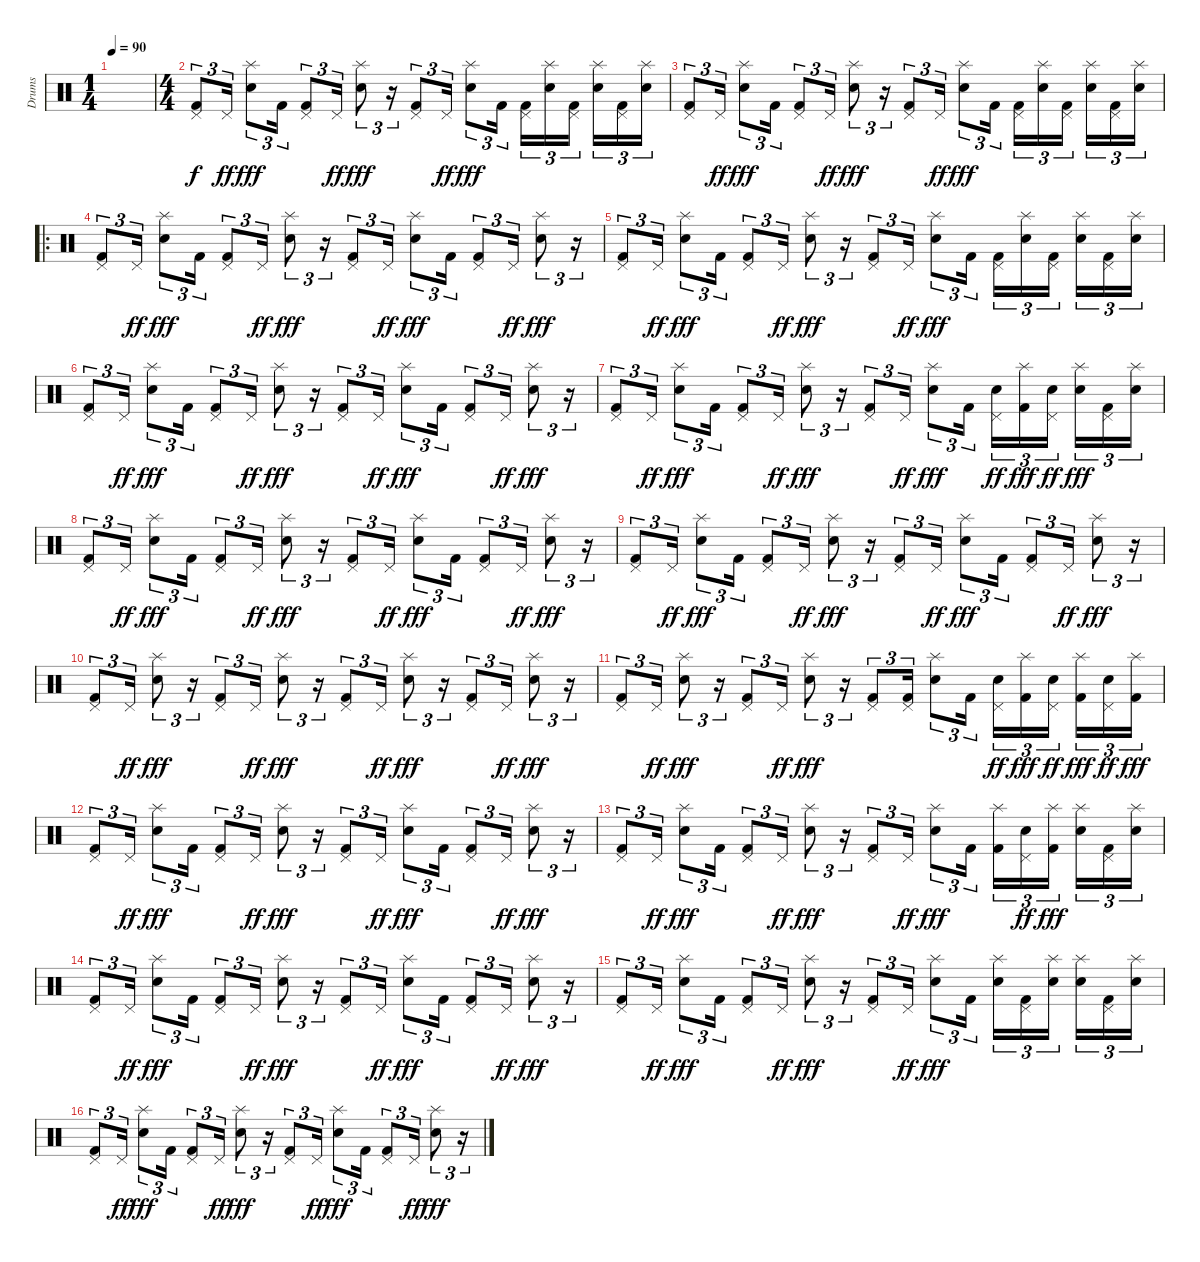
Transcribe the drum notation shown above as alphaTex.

\track ("Drums" "Drums") {instrument percussion}
\staff {score}
\articulation defaults
\ts (1 4)
\tempo 90
\clef neutral
\ks c
|
\ts (4 4)
("Pedal Hi-Hat (hit)" "Kick (hit) 2").8{tu (3 2)} "Pedal Hi-Hat (hit)".16{tu (3 2) dy ff} ("Splash (hit)" "Snare (hit) 2").8{tu (3 2) dy fff} "Kick (hit) 2".16{tu (3 2)} ("Pedal Hi-Hat (hit)" "Kick (hit) 2").8{tu (3 2)} "Pedal Hi-Hat (hit)".16{tu (3 2) dy ff} ("Splash (hit)" "Snare (hit) 2").8{tu (3 2) dy fff} r.16{tu (3 2)} ("Pedal Hi-Hat (hit)" "Kick (hit) 2").8{tu (3 2)} "Pedal Hi-Hat (hit)".16{tu (3 2) dy ff} ("Splash (hit)" "Snare (hit) 2").8{tu (3 2) dy fff} "Kick (hit) 2".16{tu (3 2)} ("Pedal Hi-Hat (hit)" "Kick (hit) 2").16{tu (3 2)} ("Splash (hit)" "Snare (hit) 2").16{tu (3 2)} ("Pedal Hi-Hat (hit)" "Kick (hit) 2").16{tu (3 2)} ("Splash (hit)" "Snare (hit) 2").16{tu (3 2)} ("Pedal Hi-Hat (hit)" "Kick (hit) 2").16{tu (3 2)} ("Splash (hit)" "Snare (hit) 2").16{tu (3 2)} |
("Pedal Hi-Hat (hit)" "Kick (hit) 2").8{tu (3 2)} "Pedal Hi-Hat (hit)".16{tu (3 2) dy ff} ("Splash (hit)" "Snare (hit) 2").8{tu (3 2) dy fff} "Kick (hit) 2".16{tu (3 2)} ("Pedal Hi-Hat (hit)" "Kick (hit) 2").8{tu (3 2)} "Pedal Hi-Hat (hit)".16{tu (3 2) dy ff} ("Splash (hit)" "Snare (hit) 2").8{tu (3 2) dy fff} r.16{tu (3 2)} ("Pedal Hi-Hat (hit)" "Kick (hit) 2").8{tu (3 2)} "Pedal Hi-Hat (hit)".16{tu (3 2) dy ff} ("Splash (hit)" "Snare (hit) 2").8{tu (3 2) dy fff} "Kick (hit) 2".16{tu (3 2)} ("Pedal Hi-Hat (hit)" "Kick (hit) 2").16{tu (3 2)} ("Splash (hit)" "Snare (hit) 2").16{tu (3 2)} ("Pedal Hi-Hat (hit)" "Kick (hit) 2").16{tu (3 2)} ("Splash (hit)" "Snare (hit) 2").16{tu (3 2)} ("Pedal Hi-Hat (hit)" "Kick (hit) 2").16{tu (3 2)} ("Splash (hit)" "Snare (hit) 2").16{tu (3 2)} |
\ro
("Pedal Hi-Hat (hit)" "Kick (hit) 2").8{tu (3 2)} "Pedal Hi-Hat (hit)".16{tu (3 2) dy ff} ("Splash (hit)" "Snare (hit) 2").8{tu (3 2) dy fff} "Kick (hit) 2".16{tu (3 2)} ("Pedal Hi-Hat (hit)" "Kick (hit) 2").8{tu (3 2)} "Pedal Hi-Hat (hit)".16{tu (3 2) dy ff} ("Splash (hit)" "Snare (hit) 2").8{tu (3 2) dy fff} r.16{tu (3 2)} ("Pedal Hi-Hat (hit)" "Kick (hit) 2").8{tu (3 2)} "Pedal Hi-Hat (hit)".16{tu (3 2) dy ff} ("Splash (hit)" "Snare (hit) 2").8{tu (3 2) dy fff} "Kick (hit) 2".16{tu (3 2)} ("Pedal Hi-Hat (hit)" "Kick (hit) 2").8{tu (3 2)} "Pedal Hi-Hat (hit)".16{tu (3 2) dy ff} ("Splash (hit)" "Snare (hit) 2").8{tu (3 2) dy fff} r.16{tu (3 2)} |
("Pedal Hi-Hat (hit)" "Kick (hit) 2").8{tu (3 2)} "Pedal Hi-Hat (hit)".16{tu (3 2) dy ff} ("Splash (hit)" "Snare (hit) 2").8{tu (3 2) dy fff} "Kick (hit) 2".16{tu (3 2)} ("Pedal Hi-Hat (hit)" "Kick (hit) 2").8{tu (3 2)} "Pedal Hi-Hat (hit)".16{tu (3 2) dy ff} ("Splash (hit)" "Snare (hit) 2").8{tu (3 2) dy fff} r.16{tu (3 2)} ("Pedal Hi-Hat (hit)" "Kick (hit) 2").8{tu (3 2)} "Pedal Hi-Hat (hit)".16{tu (3 2) dy ff} ("Splash (hit)" "Snare (hit) 2").8{tu (3 2) dy fff} "Kick (hit) 2".16{tu (3 2)} ("Pedal Hi-Hat (hit)" "Kick (hit) 2").16{tu (3 2)} ("Splash (hit)" "Snare (hit) 2").16{tu (3 2)} ("Pedal Hi-Hat (hit)" "Kick (hit) 2").16{tu (3 2)} ("Splash (hit)" "Snare (hit) 2").16{tu (3 2)} ("Pedal Hi-Hat (hit)" "Kick (hit) 2").16{tu (3 2)} ("Splash (hit)" "Snare (hit) 2").16{tu (3 2)} |
("Pedal Hi-Hat (hit)" "Kick (hit) 2").8{tu (3 2)} "Pedal Hi-Hat (hit)".16{tu (3 2) dy ff} ("Splash (hit)" "Snare (hit) 2").8{tu (3 2) dy fff} "Kick (hit) 2".16{tu (3 2)} ("Pedal Hi-Hat (hit)" "Kick (hit) 2").8{tu (3 2)} "Pedal Hi-Hat (hit)".16{tu (3 2) dy ff} ("Splash (hit)" "Snare (hit) 2").8{tu (3 2) dy fff} r.16{tu (3 2)} ("Pedal Hi-Hat (hit)" "Kick (hit) 2").8{tu (3 2)} "Pedal Hi-Hat (hit)".16{tu (3 2) dy ff} ("Splash (hit)" "Snare (hit) 2").8{tu (3 2) dy fff} "Kick (hit) 2".16{tu (3 2)} ("Pedal Hi-Hat (hit)" "Kick (hit) 2").8{tu (3 2)} "Pedal Hi-Hat (hit)".16{tu (3 2) dy ff} ("Splash (hit)" "Snare (hit) 2").8{tu (3 2) dy fff} r.16{tu (3 2)} |
("Pedal Hi-Hat (hit)" "Kick (hit) 2").8{tu (3 2)} "Pedal Hi-Hat (hit)".16{tu (3 2) dy ff} ("Splash (hit)" "Snare (hit) 2").8{tu (3 2) dy fff} "Kick (hit) 2".16{tu (3 2)} ("Pedal Hi-Hat (hit)" "Kick (hit) 2").8{tu (3 2)} "Pedal Hi-Hat (hit)".16{tu (3 2) dy ff} ("Splash (hit)" "Snare (hit) 2").8{tu (3 2) dy fff} r.16{tu (3 2)} ("Pedal Hi-Hat (hit)" "Kick (hit) 2").8{tu (3 2)} "Pedal Hi-Hat (hit)".16{tu (3 2) dy ff} ("Splash (hit)" "Snare (hit) 2").8{tu (3 2) dy fff} "Kick (hit) 2".16{tu (3 2)} ("Pedal Hi-Hat (hit)" "Snare (hit) 2").16{tu (3 2) dy ff} ("Splash (hit)" "Kick (hit) 2").16{tu (3 2) dy fff} ("Pedal Hi-Hat (hit)" "Snare (hit) 2").16{tu (3 2) dy ff} ("Splash (hit)" "Snare (hit) 2").16{tu (3 2) dy fff} ("Pedal Hi-Hat (hit)" "Kick (hit) 2").16{tu (3 2)} ("Splash (hit)" "Snare (hit) 2").16{tu (3 2)} |
("Pedal Hi-Hat (hit)" "Kick (hit) 2").8{tu (3 2)} "Pedal Hi-Hat (hit)".16{tu (3 2) dy ff} ("Splash (hit)" "Snare (hit) 2").8{tu (3 2) dy fff} "Kick (hit) 2".16{tu (3 2)} ("Pedal Hi-Hat (hit)" "Kick (hit) 2").8{tu (3 2)} "Pedal Hi-Hat (hit)".16{tu (3 2) dy ff} ("Splash (hit)" "Snare (hit) 2").8{tu (3 2) dy fff} r.16{tu (3 2)} ("Pedal Hi-Hat (hit)" "Kick (hit) 2").8{tu (3 2)} "Pedal Hi-Hat (hit)".16{tu (3 2) dy ff} ("Splash (hit)" "Snare (hit) 2").8{tu (3 2) dy fff} "Kick (hit) 2".16{tu (3 2)} ("Pedal Hi-Hat (hit)" "Kick (hit) 2").8{tu (3 2)} "Pedal Hi-Hat (hit)".16{tu (3 2) dy ff} ("Splash (hit)" "Snare (hit) 2").8{tu (3 2) dy fff} r.16{tu (3 2)} |
("Pedal Hi-Hat (hit)" "Kick (hit) 2").8{tu (3 2)} "Pedal Hi-Hat (hit)".16{tu (3 2) dy ff} ("Splash (hit)" "Snare (hit) 2").8{tu (3 2) dy fff} "Kick (hit) 2".16{tu (3 2)} ("Pedal Hi-Hat (hit)" "Kick (hit) 2").8{tu (3 2)} "Pedal Hi-Hat (hit)".16{tu (3 2) dy ff} ("Splash (hit)" "Snare (hit) 2").8{tu (3 2) dy fff} r.16{tu (3 2)} ("Pedal Hi-Hat (hit)" "Kick (hit) 2").8{tu (3 2)} "Pedal Hi-Hat (hit)".16{tu (3 2) dy ff} ("Splash (hit)" "Snare (hit) 2").8{tu (3 2) dy fff} "Kick (hit) 2".16{tu (3 2)} ("Pedal Hi-Hat (hit)" "Kick (hit) 2").8{tu (3 2)} "Pedal Hi-Hat (hit)".16{tu (3 2) dy ff} ("Splash (hit)" "Snare (hit) 2").8{tu (3 2) dy fff} r.16{tu (3 2)} |
("Pedal Hi-Hat (hit)" "Kick (hit) 2").8{tu (3 2)} "Pedal Hi-Hat (hit)".16{tu (3 2) dy ff} ("Splash (hit)" "Snare (hit) 2").8{tu (3 2) dy fff} r.16{tu (3 2)} ("Pedal Hi-Hat (hit)" "Kick (hit) 2").8{tu (3 2)} "Pedal Hi-Hat (hit)".16{tu (3 2) dy ff} ("Splash (hit)" "Snare (hit) 2").8{tu (3 2) dy fff} r.16{tu (3 2)} ("Pedal Hi-Hat (hit)" "Kick (hit) 2").8{tu (3 2)} "Pedal Hi-Hat (hit)".16{tu (3 2) dy ff} ("Splash (hit)" "Snare (hit) 2").8{tu (3 2) dy fff} r.16{tu (3 2)} ("Pedal Hi-Hat (hit)" "Kick (hit) 2").8{tu (3 2)} "Pedal Hi-Hat (hit)".16{tu (3 2) dy ff} ("Splash (hit)" "Snare (hit) 2").8{tu (3 2) dy fff} r.16{tu (3 2)} |
("Pedal Hi-Hat (hit)" "Kick (hit) 2").8{tu (3 2)} "Pedal Hi-Hat (hit)".16{tu (3 2) dy ff} ("Splash (hit)" "Snare (hit) 2").8{tu (3 2) dy fff} r.16{tu (3 2)} ("Pedal Hi-Hat (hit)" "Kick (hit) 2").8{tu (3 2)} "Pedal Hi-Hat (hit)".16{tu (3 2) dy ff} ("Splash (hit)" "Snare (hit) 2").8{tu (3 2) dy fff} r.16{tu (3 2)} ("Pedal Hi-Hat (hit)" "Kick (hit) 2").8{tu (3 2)} ("Pedal Hi-Hat (hit)" "Kick (hit) 2").16{tu (3 2)} ("Splash (hit)" "Snare (hit) 2").8{tu (3 2)} "Kick (hit) 2".16{tu (3 2)} ("Pedal Hi-Hat (hit)" "Snare (hit) 2").16{tu (3 2) dy ff} ("Splash (hit)" "Kick (hit) 2").16{tu (3 2) dy fff} ("Pedal Hi-Hat (hit)" "Snare (hit) 2").16{tu (3 2) dy ff} ("Splash (hit)" "Kick (hit) 2").16{tu (3 2) dy fff} ("Pedal Hi-Hat (hit)" "Snare (hit) 2").16{tu (3 2) dy ff} ("Splash (hit)" "Kick (hit) 2").16{tu (3 2) dy fff} |
("Pedal Hi-Hat (hit)" "Kick (hit) 2").8{tu (3 2)} "Pedal Hi-Hat (hit)".16{tu (3 2) dy ff} ("Splash (hit)" "Snare (hit) 2").8{tu (3 2) dy fff} "Kick (hit) 2".16{tu (3 2)} ("Pedal Hi-Hat (hit)" "Kick (hit) 2").8{tu (3 2)} "Pedal Hi-Hat (hit)".16{tu (3 2) dy ff} ("Splash (hit)" "Snare (hit) 2").8{tu (3 2) dy fff} r.16{tu (3 2)} ("Pedal Hi-Hat (hit)" "Kick (hit) 2").8{tu (3 2)} "Pedal Hi-Hat (hit)".16{tu (3 2) dy ff} ("Splash (hit)" "Snare (hit) 2").8{tu (3 2) dy fff} "Kick (hit) 2".16{tu (3 2)} ("Pedal Hi-Hat (hit)" "Kick (hit) 2").8{tu (3 2)} "Pedal Hi-Hat (hit)".16{tu (3 2) dy ff} ("Splash (hit)" "Snare (hit) 2").8{tu (3 2) dy fff} r.16{tu (3 2)} |
("Pedal Hi-Hat (hit)" "Kick (hit) 2").8{tu (3 2)} "Pedal Hi-Hat (hit)".16{tu (3 2) dy ff} ("Splash (hit)" "Snare (hit) 2").8{tu (3 2) dy fff} "Kick (hit) 2".16{tu (3 2)} ("Pedal Hi-Hat (hit)" "Kick (hit) 2").8{tu (3 2)} "Pedal Hi-Hat (hit)".16{tu (3 2) dy ff} ("Splash (hit)" "Snare (hit) 2").8{tu (3 2) dy fff} r.16{tu (3 2)} ("Pedal Hi-Hat (hit)" "Kick (hit) 2").8{tu (3 2)} "Pedal Hi-Hat (hit)".16{tu (3 2) dy ff} ("Splash (hit)" "Snare (hit) 2").8{tu (3 2) dy fff} "Kick (hit) 2".16{tu (3 2)} ("Splash (hit)" "Kick (hit) 2").16{tu (3 2)} ("Pedal Hi-Hat (hit)" "Snare (hit) 2").16{tu (3 2) dy ff} ("Splash (hit)" "Kick (hit) 2").16{tu (3 2) dy fff} ("Splash (hit)" "Snare (hit) 2").16{tu (3 2)} ("Pedal Hi-Hat (hit)" "Kick (hit) 2").16{tu (3 2)} ("Splash (hit)" "Snare (hit) 2").16{tu (3 2)} |
("Pedal Hi-Hat (hit)" "Kick (hit) 2").8{tu (3 2)} "Pedal Hi-Hat (hit)".16{tu (3 2) dy ff} ("Splash (hit)" "Snare (hit) 2").8{tu (3 2) dy fff} "Kick (hit) 2".16{tu (3 2)} ("Pedal Hi-Hat (hit)" "Kick (hit) 2").8{tu (3 2)} "Pedal Hi-Hat (hit)".16{tu (3 2) dy ff} ("Splash (hit)" "Snare (hit) 2").8{tu (3 2) dy fff} r.16{tu (3 2)} ("Pedal Hi-Hat (hit)" "Kick (hit) 2").8{tu (3 2)} "Pedal Hi-Hat (hit)".16{tu (3 2) dy ff} ("Splash (hit)" "Snare (hit) 2").8{tu (3 2) dy fff} "Kick (hit) 2".16{tu (3 2)} ("Pedal Hi-Hat (hit)" "Kick (hit) 2").8{tu (3 2)} "Pedal Hi-Hat (hit)".16{tu (3 2) dy ff} ("Splash (hit)" "Snare (hit) 2").8{tu (3 2) dy fff} r.16{tu (3 2)} |
("Pedal Hi-Hat (hit)" "Kick (hit) 2").8{tu (3 2)} "Pedal Hi-Hat (hit)".16{tu (3 2) dy ff} ("Splash (hit)" "Snare (hit) 2").8{tu (3 2) dy fff} "Kick (hit) 2".16{tu (3 2)} ("Pedal Hi-Hat (hit)" "Kick (hit) 2").8{tu (3 2)} "Pedal Hi-Hat (hit)".16{tu (3 2) dy ff} ("Splash (hit)" "Snare (hit) 2").8{tu (3 2) dy fff} r.16{tu (3 2)} ("Pedal Hi-Hat (hit)" "Kick (hit) 2").8{tu (3 2)} "Pedal Hi-Hat (hit)".16{tu (3 2) dy ff} ("Splash (hit)" "Snare (hit) 2").8{tu (3 2) dy fff} "Kick (hit) 2".16{tu (3 2)} ("Splash (hit)" "Snare (hit) 2").16{tu (3 2)} ("Pedal Hi-Hat (hit)" "Kick (hit) 2").16{tu (3 2)} ("Splash (hit)" "Snare (hit) 2").16{tu (3 2)} ("Splash (hit)" "Snare (hit) 2").16{tu (3 2)} ("Pedal Hi-Hat (hit)" "Kick (hit) 2").16{tu (3 2)} ("Splash (hit)" "Snare (hit) 2").16{tu (3 2)} |
("Pedal Hi-Hat (hit)" "Kick (hit) 2").8{tu (3 2)} "Pedal Hi-Hat (hit)".16{tu (3 2) dy ff} ("Splash (hit)" "Snare (hit) 2").8{tu (3 2) dy fff} "Kick (hit) 2".16{tu (3 2)} ("Pedal Hi-Hat (hit)" "Kick (hit) 2").8{tu (3 2)} "Pedal Hi-Hat (hit)".16{tu (3 2) dy ff} ("Splash (hit)" "Snare (hit) 2").8{tu (3 2) dy fff} r.16{tu (3 2)} ("Pedal Hi-Hat (hit)" "Kick (hit) 2").8{tu (3 2)} "Pedal Hi-Hat (hit)".16{tu (3 2) dy ff} ("Splash (hit)" "Snare (hit) 2").8{tu (3 2) dy fff} "Kick (hit) 2".16{tu (3 2)} ("Pedal Hi-Hat (hit)" "Kick (hit) 2").8{tu (3 2)} "Pedal Hi-Hat (hit)".16{tu (3 2) dy ff} ("Splash (hit)" "Snare (hit) 2").8{tu (3 2) dy fff} r.16{tu (3 2)}
